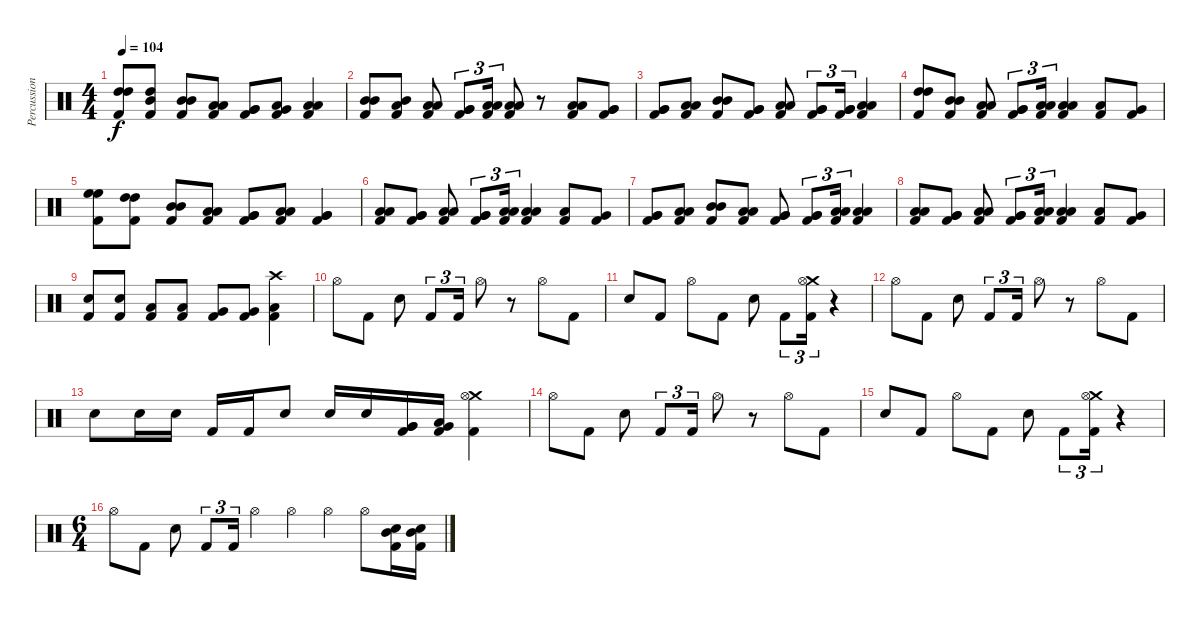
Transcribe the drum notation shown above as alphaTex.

\track ("Percussion" "Percussion") {instrument percussion}
\staff {score}
\articulation defaults
\ts (4 4)
\tempo 104
\clef neutral
\ks c
("High Tom (hit)" "High Tom (hit)" "Kick (hit) 2").8{dy f} ("High Tom (hit)" "Mid Tom (hit)" "Kick (hit) 2").8 ("Mid Tom (hit)" "Mid Tom (hit)" "Kick (hit) 2").8 ("Low Tom (hit)" "Low Tom (hit)" "Kick (hit) 2").8 ("Very Low Tom (hit)" "Very Low Tom (hit)" "Kick (hit) 2").8 ("Very Low Tom (hit)" "Low Floor Tom (hit)" "Kick (hit) 2").8 ("Low Floor Tom (hit)" "Low Floor Tom (hit)" "Kick (hit) 2").4 |
("Mid Tom (hit)" "Mid Tom (hit)" "Kick (hit) 2").8 ("Low Tom (hit)" "Mid Tom (hit)" "Kick (hit) 2").8 ("Low Tom (hit)" "Low Tom (hit)" "Kick (hit) 2").8 ("Very Low Tom (hit)" "Very Low Tom (hit)" "Kick (hit) 2").8{tu (3 2)} ("Low Floor Tom (hit)" "Low Floor Tom (hit)" "Kick (hit) 2").16{tu (3 2)} ("Low Floor Tom (hit)" "Low Floor Tom (hit)" "Kick (hit) 2").8 r.8 ("Low Tom (hit)" "Low Tom (hit)" "Kick (hit) 2").8 ("Very Low Tom (hit)" "Very Low Tom (hit)" "Kick (hit) 2").8 |
("Very Low Tom (hit)" "Very Low Tom (hit)" "Kick (hit) 2").8 ("Low Tom (hit)" "Low Tom (hit)" "Kick (hit) 2").8 ("Mid Tom (hit)" "Mid Tom (hit)" "Kick (hit) 2").8 ("Very Low Tom (hit)" "Very Low Tom (hit)" "Kick (hit) 2").8 ("Low Floor Tom (hit)" "Low Floor Tom (hit)" "Kick (hit) 2").8 ("Very Low Tom (hit)" "Very Low Tom (hit)" "Kick (hit) 2").8{tu (3 2)} ("Very Low Tom (hit)" "Very Low Tom (hit)" "Kick (hit) 2").16{tu (3 2)} ("Low Floor Tom (hit)" "Low Floor Tom (hit)" "Kick (hit) 2").4 |
("High Tom (hit)" "High Tom (hit)" "Kick (hit) 2").8 ("Mid Tom (hit)" "Mid Tom (hit)" "Kick (hit) 2").8 ("Low Tom (hit)" "Low Tom (hit)" "Kick (hit) 2").8 ("Very Low Tom (hit)" "Very Low Tom (hit)" "Kick (hit) 2").8{tu (3 2)} ("Low Floor Tom (hit)" "Low Floor Tom (hit)" "Kick (hit) 2").16{tu (3 2)} ("Low Floor Tom (hit)" "Low Floor Tom (hit)" "Kick (hit) 2").4 ("Low Tom (hit)" "Kick (hit) 2").8 ("Very Low Tom (hit)" "Kick (hit) 2").8 |
("High Floor Tom (hit)" "High Floor Tom (hit)" "Kick (hit) 2").8 ("High Tom (hit)" "High Tom (hit)" "Kick (hit) 2").8 ("Mid Tom (hit)" "Mid Tom (hit)" "Kick (hit) 2").8 ("Low Tom (hit)" "Low Tom (hit)" "Kick (hit) 2").8 ("Very Low Tom (hit)" "Very Low Tom (hit)" "Kick (hit) 2").8 ("Low Floor Tom (hit)" "Low Floor Tom (hit)" "Kick (hit) 2").8 ("Very Low Tom (hit)" "Very Low Tom (hit)" "Kick (hit) 2").4 |
("Low Tom (hit)" "Low Tom (hit)" "Kick (hit) 2").8 ("Very Low Tom (hit)" "Very Low Tom (hit)" "Kick (hit) 2").8 ("Low Tom (hit)" "Low Tom (hit)" "Kick (hit) 2").8 ("Very Low Tom (hit)" "Very Low Tom (hit)" "Kick (hit) 2").8{tu (3 2)} ("Low Tom (hit)" "Low Tom (hit)" "Kick (hit) 2").16{tu (3 2)} ("Low Tom (hit)" "Low Tom (hit)" "Kick (hit) 2").4 ("Low Tom (hit)" "Kick (hit) 2").8 ("Very Low Tom (hit)" "Kick (hit) 2").8 |
("Very Low Tom (hit)" "Very Low Tom (hit)" "Kick (hit) 2").8 ("Low Tom (hit)" "Low Tom (hit)" "Kick (hit) 2").8 ("Mid Tom (hit)" "Mid Tom (hit)" "Kick (hit) 2").8 ("Low Tom (hit)" "Low Tom (hit)" "Kick (hit) 2").8 ("Very Low Tom (hit)" "Very Low Tom (hit)" "Kick (hit) 2").8 ("Very Low Tom (hit)" "Very Low Tom (hit)" "Kick (hit) 2").8{tu (3 2)} ("Low Tom (hit)" "Low Tom (hit)" "Kick (hit) 2").16{tu (3 2)} ("Low Tom (hit)" "Low Tom (hit)" "Kick (hit) 2").4 |
("Low Tom (hit)" "Low Tom (hit)" "Kick (hit) 2").8 ("Very Low Tom (hit)" "Very Low Tom (hit)" "Kick (hit) 2").8 ("Low Tom (hit)" "Low Tom (hit)" "Kick (hit) 2").8 ("Very Low Tom (hit)" "Very Low Tom (hit)" "Kick (hit) 2").8{tu (3 2)} ("Low Tom (hit)" "Low Tom (hit)" "Kick (hit) 2").16{tu (3 2)} ("Low Tom (hit)" "Low Tom (hit)" "Kick (hit) 2").4 ("Low Tom (hit)" "Kick (hit) 2").8 ("Very Low Tom (hit)" "Kick (hit) 2").8 |
("Snare (hit) 2" "Kick (hit) 2").8 ("Snare (hit) 2" "Kick (hit) 2").8 ("Low Tom (hit)" "Kick (hit) 2").8 ("Low Tom (hit)" "Kick (hit) 2").8 ("Very Low Tom (hit)" "Kick (hit) 2").8 ("Very Low Tom (hit)" "Kick (hit) 2").8 ("Crash high (hit)" "Low Floor Tom (hit)" "Kick (hit) 2").4 |
"Hi-Hat (open)".8 "Kick (hit) 2".8 "Snare (hit) 2".8 "Kick (hit) 2".8{tu (3 2)} "Kick (hit) 2".16{tu (3 2)} "Hi-Hat (open)".8 r.8 "Hi-Hat (open)".8 "Kick (hit) 2".8 |
"Snare (hit) 2".8 "Kick (hit) 2".8 "Hi-Hat (open)".8 "Kick (hit) 2".8 "Snare (hit) 2".8 "Kick (hit) 2".8{tu (3 2)} ("Crash medium (hit)" "Hi-Hat (open)" "Kick (hit) 2").16{tu (3 2)} r.4 |
"Hi-Hat (open)".8 "Kick (hit) 2".8 "Snare (hit) 2".8 "Kick (hit) 2".8{tu (3 2)} "Kick (hit) 2".16{tu (3 2)} "Hi-Hat (open)".8 r.8 "Hi-Hat (open)".8 "Kick (hit) 2".8 |
"Snare (hit) 2".8 "Snare (hit) 2".16 "Snare (hit) 2".16 "Kick (hit) 2".16 "Kick (hit) 2".16 "Snare (hit) 2".8 "Snare (hit) 2".16 "Snare (hit) 2".16 ("Very Low Tom (hit)" "Very Low Tom (hit)" "Kick (hit) 2").16 ("Low Floor Tom (hit)" "Very Low Tom (hit)" "Kick (hit) 2").16 ("Crash medium (hit)" "Hi-Hat (open)" "Kick (hit) 2").4 |
"Hi-Hat (open)".8 "Kick (hit) 2".8 "Snare (hit) 2".8 "Kick (hit) 2".8{tu (3 2)} "Kick (hit) 2".16{tu (3 2)} "Hi-Hat (open)".8 r.8 "Hi-Hat (open)".8 "Kick (hit) 2".8 |
"Snare (hit) 2".8 "Kick (hit) 2".8 "Hi-Hat (open)".8 "Kick (hit) 2".8 "Snare (hit) 2".8 "Kick (hit) 2".8{tu (3 2)} ("Crash medium (hit)" "Hi-Hat (open)" "Kick (hit) 2").16{tu (3 2)} r.4 |
\ts (6 4)
"Hi-Hat (open)".8 "Kick (hit) 2".8 "Snare (hit) 2".8 "Kick (hit) 2".8{tu (3 2)} "Kick (hit) 2".16{tu (3 2)} "Hi-Hat (open)".4 "Hi-Hat (open)".4 "Hi-Hat (open)".4 "Hi-Hat (open)".8 ("Mid Tom (hit)" "Snare (hit) 2" "Kick (hit) 2").16 ("Mid Tom (hit)" "Snare (hit) 2" "Kick (hit) 2").16
